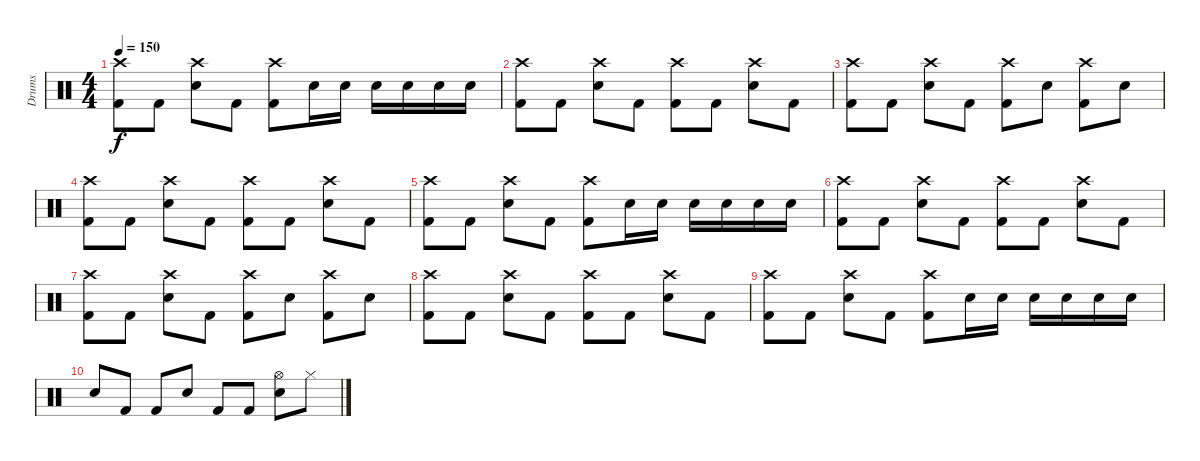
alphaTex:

\track ("Drums" "Drums") {instrument percussion}
\staff {score}
\articulation defaults
\ts (4 4)
\tempo 150
\clef neutral
\ks c
("Kick (hit) 2" "Crash high (hit)").8{dy f} "Kick (hit) 2".8 ("Snare (hit) 2" "Crash high (hit)").8 "Kick (hit) 2".8 ("Kick (hit) 2" "Crash high (hit)").8 "Snare (hit) 2".16 "Snare (hit) 2".16 "Snare (hit) 2".16 "Snare (hit) 2".16 "Snare (hit) 2".16 "Snare (hit) 2".16 |
("Kick (hit) 2" "Crash high (hit)").8 "Kick (hit) 2".8 ("Snare (hit) 2" "Crash high (hit)").8 "Kick (hit) 2".8 ("Kick (hit) 2" "Crash high (hit)").8 "Kick (hit) 2".8 ("Snare (hit) 2" "Crash high (hit)").8 "Kick (hit) 2".8 |
("Kick (hit) 2" "Crash high (hit)").8 "Kick (hit) 2".8 ("Snare (hit) 2" "Crash high (hit)").8 "Kick (hit) 2".8 ("Kick (hit) 2" "Crash high (hit)").8 "Snare (hit) 2".8 ("Kick (hit) 2" "Crash high (hit)").8 "Snare (hit) 2".8 |
("Kick (hit) 2" "Crash high (hit)").8 "Kick (hit) 2".8 ("Snare (hit) 2" "Crash high (hit)").8 "Kick (hit) 2".8 ("Kick (hit) 2" "Crash high (hit)").8 "Kick (hit) 2".8 ("Snare (hit) 2" "Crash high (hit)").8 "Kick (hit) 2".8 |
("Kick (hit) 2" "Crash high (hit)").8 "Kick (hit) 2".8 ("Snare (hit) 2" "Crash high (hit)").8 "Kick (hit) 2".8 ("Kick (hit) 2" "Crash high (hit)").8 "Snare (hit) 2".16 "Snare (hit) 2".16 "Snare (hit) 2".16 "Snare (hit) 2".16 "Snare (hit) 2".16 "Snare (hit) 2".16 |
("Kick (hit) 2" "Crash high (hit)").8 "Kick (hit) 2".8 ("Snare (hit) 2" "Crash high (hit)").8 "Kick (hit) 2".8 ("Kick (hit) 2" "Crash high (hit)").8 "Kick (hit) 2".8 ("Snare (hit) 2" "Crash high (hit)").8 "Kick (hit) 2".8 |
("Kick (hit) 2" "Crash high (hit)").8 "Kick (hit) 2".8 ("Snare (hit) 2" "Crash high (hit)").8 "Kick (hit) 2".8 ("Kick (hit) 2" "Crash high (hit)").8 "Snare (hit) 2".8 ("Kick (hit) 2" "Crash high (hit)").8 "Snare (hit) 2".8 |
("Kick (hit) 2" "Crash high (hit)").8 "Kick (hit) 2".8 ("Snare (hit) 2" "Crash high (hit)").8 "Kick (hit) 2".8 ("Kick (hit) 2" "Crash high (hit)").8 "Kick (hit) 2".8 ("Snare (hit) 2" "Crash high (hit)").8 "Kick (hit) 2".8 |
("Kick (hit) 2" "Crash high (hit)").8 "Kick (hit) 2".8 ("Snare (hit) 2" "Crash high (hit)").8 "Kick (hit) 2".8 ("Kick (hit) 2" "Crash high (hit)").8 "Snare (hit) 2".16 "Snare (hit) 2".16 "Snare (hit) 2".16 "Snare (hit) 2".16 "Snare (hit) 2".16 "Snare (hit) 2".16 |
"Snare (hit) 2".8 "Kick (hit) 2".8 "Kick (hit) 2".8 "Snare (hit) 2".8 "Kick (hit) 2".8 "Kick (hit) 2".8 ("Hi-Hat (open)" "Snare (hit) 2").8 "Hi-Hat (closed)".8
